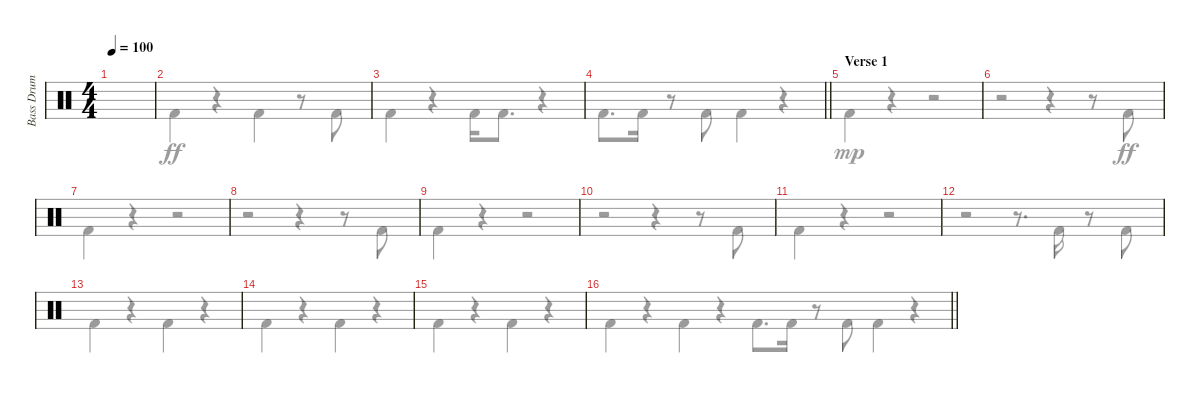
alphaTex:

\track ("Bass Drum" "Bass Drum") {instrument percussion}
\staff {score}
\articulation defaults
\voice
\ts (4 4)
\tempo 100
\clef neutral
\ks c
|
|
|
\barLineRight lightlight
|
\section ("" "Verse 1")
|
|
|
|
|
|
|
|
|
|
|
\barLineRight lightlight
\voice
\clef neutral
\ks c "Kick (hit) 2".4{dy ff}
r.4 "Kick (hit) 2".4 r.4 |
"Kick (hit) 2".4 r.4 "Kick (hit) 2".4 r.8 "Kick (hit) 2".8 |
"Kick (hit) 2".4 r.4 "Kick (hit) 2".16 "Kick (hit) 2".8{d} r.4 |
\barLineRight lightlight "Kick (hit) 2".8{d} "Kick (hit) 2".16
r.8 "Kick (hit) 2".8 "Kick (hit) 2".4 r.4 |
"Kick (hit) 2".4{dy mp} r.4 r.2 |
r.2 r.4 r.8 "Kick (hit) 2".8{dy ff} |
"Kick (hit) 2".4 r.4 r.2 |
r.2 r.4 r.8 "Kick (hit) 2".8 |
"Kick (hit) 2".4 r.4 r.2 |
r.2 r.4 r.8 "Kick (hit) 2".8 |
"Kick (hit) 2".4 r.4 r.2 |
r.2 r.8{d} "Kick (hit) 2".16 r.8 "Kick (hit) 2".8 |
"Kick (hit) 2".4 r.4 "Kick (hit) 2".4 r.4 |
"Kick (hit) 2".4 r.4 "Kick (hit) 2".4 r.4 |
"Kick (hit) 2".4 r.4 "Kick (hit) 2".4 r.4 |
\barLineRight lightlight "Kick (hit) 2".8{d} "Kick (hit) 2".16
r.8 "Kick (hit) 2".8 "Kick (hit) 2".4 r.4
